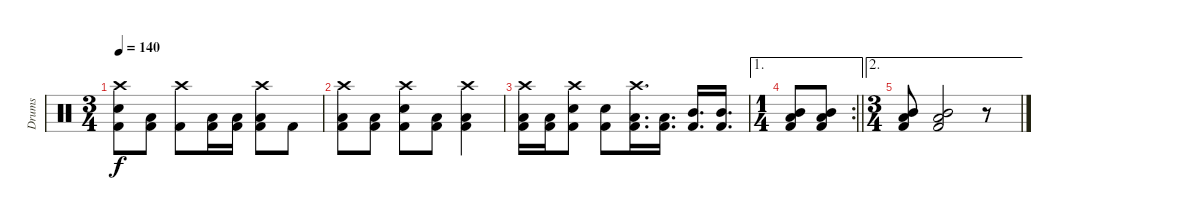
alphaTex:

\track ("Drums" "Drums") {instrument percussion}
\staff {score}
\articulation defaults
\ts (3 4)
\tempo 140
\clef neutral
\ks c
("Crash high (hit)" "Electric Snare (hit)" "Kick (hit) 2").8{dy f} ("Low Tom (hit)" "Kick (hit) 2").8 ("Crash high (hit)" "Kick (hit) 2").8 ("Low Floor Tom (hit)" "Kick (hit) 2").16 ("Low Floor Tom (hit)" "Kick (hit) 2").16 ("Crash high (hit)" "Low Floor Tom (hit)" "Kick (hit) 2").8 "Kick (hit) 2".8 |
("Crash high (hit)" "Low Floor Tom (hit)" "Kick (hit) 2").8 ("Low Floor Tom (hit)" "Kick (hit) 2").8 ("Crash high (hit)" "Electric Snare (hit)" "Kick (hit) 2").8 ("Low Floor Tom (hit)" "Kick (hit) 2").8 ("Crash high (hit)" "Low Floor Tom (hit)" "Kick (hit) 2").4 |
("Crash high (hit)" "Low Floor Tom (hit)" "Kick (hit) 2").16 ("Low Floor Tom (hit)" "Kick (hit) 2").16 ("Crash high (hit)" "Electric Snare (hit)" "Kick (hit) 2").8 ("Electric Snare (hit)" "Kick (hit) 2").8 ("Crash high (hit)" "Low Tom (hit)" "Kick (hit) 2").16{d} ("Low Tom (hit)" "Kick (hit) 2").16{d} ("Mid Tom (hit)" "Kick (hit) 2").16{d} ("Mid Tom (hit)" "Kick (hit) 2").16{d} |
\ae 1
\rc 2
\ts (1 4)
\barLineRight lightlight
("Mid Tom (hit)" "Low Tom (hit)" "Kick (hit) 2").8 ("Mid Tom (hit)" "Low Tom (hit)" "Kick (hit) 2").8 |
\ae 2
\ts (3 4)
("Mid Tom (hit)" "Low Tom (hit)" "Kick (hit) 2").8 ("Mid Tom (hit)" "Low Tom (hit)" "Kick (hit) 2").2 r.8
